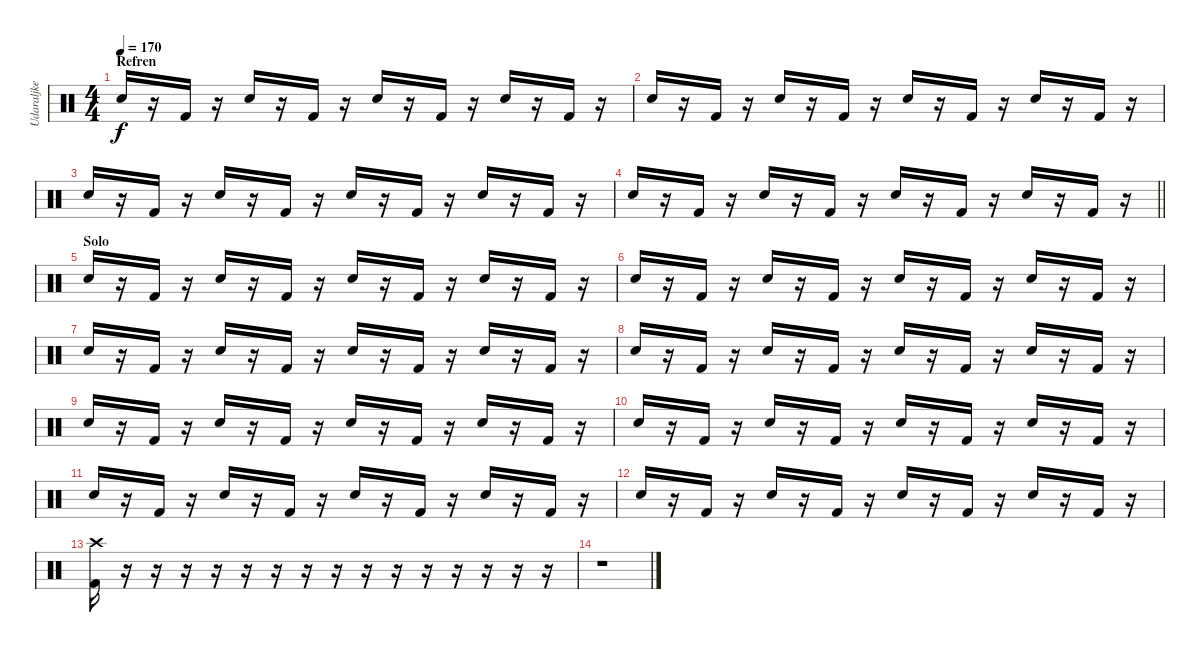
\track ("Udaraljke" "Udaraljke") {instrument percussion}
\staff {score}
\articulation defaults
\ts (4 4)
\section ("" "Refren")
\tempo 170
\clef neutral
\ks c "Snare (hit) 2".16{dy f}
r.16 "Kick (hit) 2".16 r.16 "Snare (hit) 2".16 r.16 "Kick (hit) 2".16 r.16 "Snare (hit) 2".16 r.16 "Kick (hit) 2".16 r.16 "Snare (hit) 2".16 r.16 "Kick (hit) 2".16 r.16 |
"Snare (hit) 2".16 r.16 "Kick (hit) 2".16 r.16 "Snare (hit) 2".16 r.16 "Kick (hit) 2".16 r.16 "Snare (hit) 2".16 r.16 "Kick (hit) 2".16 r.16 "Snare (hit) 2".16 r.16 "Kick (hit) 2".16 r.16 |
"Snare (hit) 2".16 r.16 "Kick (hit) 2".16 r.16 "Snare (hit) 2".16 r.16 "Kick (hit) 2".16 r.16 "Snare (hit) 2".16 r.16 "Kick (hit) 2".16 r.16 "Snare (hit) 2".16 r.16 "Kick (hit) 2".16 r.16 |
\barLineRight lightlight "Snare (hit) 2".16
r.16 "Kick (hit) 2".16 r.16 "Snare (hit) 2".16 r.16 "Kick (hit) 2".16 r.16 "Snare (hit) 2".16 r.16 "Kick (hit) 2".16 r.16 "Snare (hit) 2".16 r.16 "Kick (hit) 2".16 r.16 |
\section ("" "Solo")
"Snare (hit) 2".16 r.16 "Kick (hit) 2".16 r.16 "Snare (hit) 2".16 r.16 "Kick (hit) 2".16 r.16 "Snare (hit) 2".16 r.16 "Kick (hit) 2".16 r.16 "Snare (hit) 2".16 r.16 "Kick (hit) 2".16 r.16 |
"Snare (hit) 2".16 r.16 "Kick (hit) 2".16 r.16 "Snare (hit) 2".16 r.16 "Kick (hit) 2".16 r.16 "Snare (hit) 2".16 r.16 "Kick (hit) 2".16 r.16 "Snare (hit) 2".16 r.16 "Kick (hit) 2".16 r.16 |
"Snare (hit) 2".16 r.16 "Kick (hit) 2".16 r.16 "Snare (hit) 2".16 r.16 "Kick (hit) 2".16 r.16 "Snare (hit) 2".16 r.16 "Kick (hit) 2".16 r.16 "Snare (hit) 2".16 r.16 "Kick (hit) 2".16 r.16 |
"Snare (hit) 2".16 r.16 "Kick (hit) 2".16 r.16 "Snare (hit) 2".16 r.16 "Kick (hit) 2".16 r.16 "Snare (hit) 2".16 r.16 "Kick (hit) 2".16 r.16 "Snare (hit) 2".16 r.16 "Kick (hit) 2".16 r.16 |
"Snare (hit) 2".16 r.16 "Kick (hit) 2".16 r.16 "Snare (hit) 2".16 r.16 "Kick (hit) 2".16 r.16 "Snare (hit) 2".16 r.16 "Kick (hit) 2".16 r.16 "Snare (hit) 2".16 r.16 "Kick (hit) 2".16 r.16 |
"Snare (hit) 2".16 r.16 "Kick (hit) 2".16 r.16 "Snare (hit) 2".16 r.16 "Kick (hit) 2".16 r.16 "Snare (hit) 2".16 r.16 "Kick (hit) 2".16 r.16 "Snare (hit) 2".16 r.16 "Kick (hit) 2".16 r.16 |
"Snare (hit) 2".16 r.16 "Kick (hit) 2".16 r.16 "Snare (hit) 2".16 r.16 "Kick (hit) 2".16 r.16 "Snare (hit) 2".16 r.16 "Kick (hit) 2".16 r.16 "Snare (hit) 2".16 r.16 "Kick (hit) 2".16 r.16 |
"Snare (hit) 2".16 r.16 "Kick (hit) 2".16 r.16 "Snare (hit) 2".16 r.16 "Kick (hit) 2".16 r.16 "Snare (hit) 2".16 r.16 "Kick (hit) 2".16 r.16 "Snare (hit) 2".16 r.16 "Kick (hit) 2".16 r.16 |
("Crash high (hit)" "Kick (hit) 2").16 r.16 r.16 r.16 r.16 r.16 r.16 r.16 r.16 r.16 r.16 r.16 r.16 r.16 r.16 r.16 |
r.1
